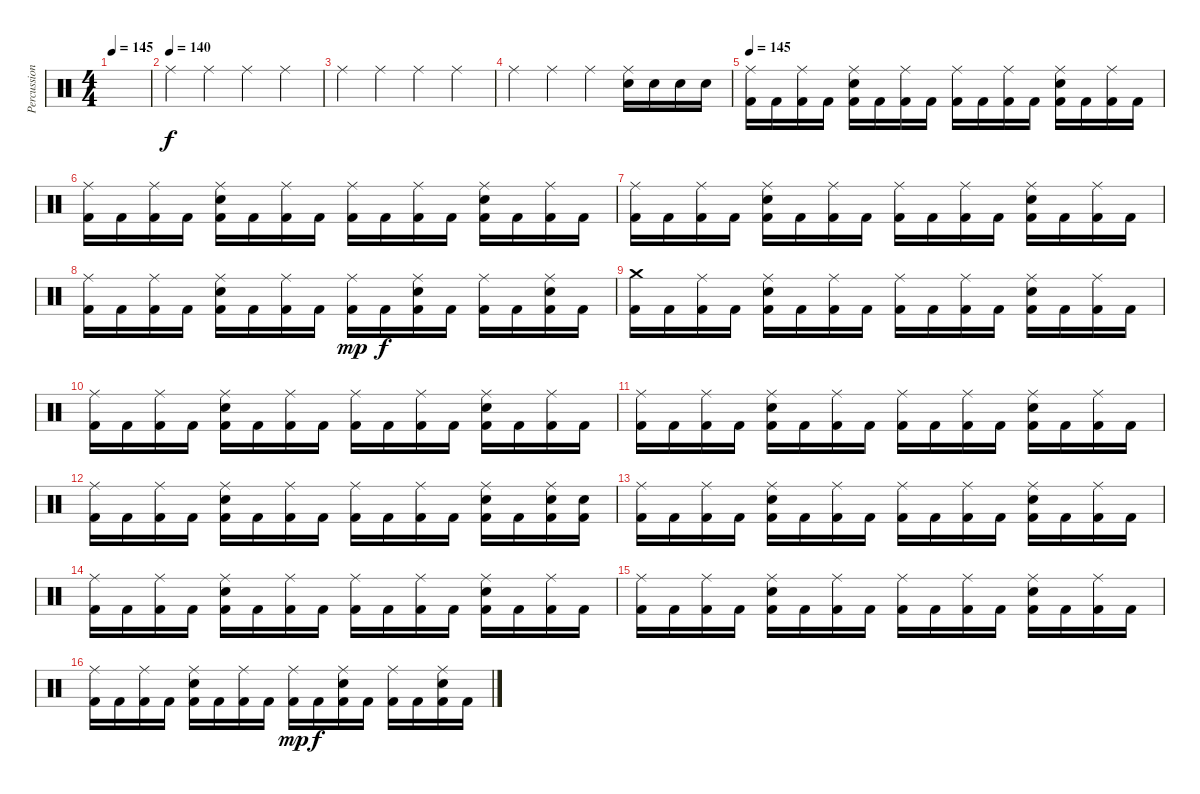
\track ("Percussions" "Percussion") {instrument percussion}
\staff {score}
\articulation defaults
\ts (4 4)
\tempo 145
\clef neutral
\ks c
|
\tempo (140)
"Ride (middle)".4 "Ride (middle)".4 "Ride (middle)".4 "Ride (middle)".4 |
"Ride (middle)".4 "Ride (middle)".4 "Ride (middle)".4 "Ride (middle)".4 |
"Ride (middle)".4 "Ride (middle)".4 "Ride (middle)".4 ("Ride (middle)" "Snare (hit) 2").16 "Snare (hit) 2".16 "Snare (hit) 2".16 "Snare (hit) 2".16 |
\tempo 145
("Ride (middle)" "Kick (hit) 2").16 "Kick (hit) 2".16 ("Ride (middle)" "Kick (hit) 2").16 "Kick (hit) 2".16 ("Ride (middle)" "Snare (hit) 2" "Kick (hit) 2").16 "Kick (hit) 2".16 ("Ride (middle)" "Kick (hit) 2").16 "Kick (hit) 2".16 ("Ride (middle)" "Kick (hit) 2").16 "Kick (hit) 2".16 ("Ride (middle)" "Kick (hit) 2").16 "Kick (hit) 2".16 ("Ride (middle)" "Snare (hit) 2" "Kick (hit) 2").16 "Kick (hit) 2".16 ("Ride (middle)" "Kick (hit) 2").16 "Kick (hit) 2".16 |
("Ride (middle)" "Kick (hit) 2").16 "Kick (hit) 2".16 ("Ride (middle)" "Kick (hit) 2").16 "Kick (hit) 2".16 ("Ride (middle)" "Snare (hit) 2" "Kick (hit) 2").16 "Kick (hit) 2".16 ("Ride (middle)" "Kick (hit) 2").16 "Kick (hit) 2".16 ("Ride (middle)" "Kick (hit) 2").16 "Kick (hit) 2".16 ("Ride (middle)" "Kick (hit) 2").16 "Kick (hit) 2".16 ("Ride (middle)" "Snare (hit) 2" "Kick (hit) 2").16 "Kick (hit) 2".16 ("Ride (middle)" "Kick (hit) 2").16 "Kick (hit) 2".16 |
("Ride (middle)" "Kick (hit) 2").16 "Kick (hit) 2".16 ("Ride (middle)" "Kick (hit) 2").16 "Kick (hit) 2".16 ("Ride (middle)" "Snare (hit) 2" "Kick (hit) 2").16 "Kick (hit) 2".16 ("Ride (middle)" "Kick (hit) 2").16 "Kick (hit) 2".16 ("Ride (middle)" "Kick (hit) 2").16 "Kick (hit) 2".16 ("Ride (middle)" "Kick (hit) 2").16 "Kick (hit) 2".16 ("Ride (middle)" "Snare (hit) 2" "Kick (hit) 2").16 "Kick (hit) 2".16 ("Ride (middle)" "Kick (hit) 2").16 "Kick (hit) 2".16 |
("Ride (middle)" "Kick (hit) 2").16 "Kick (hit) 2".16 ("Ride (middle)" "Kick (hit) 2").16 "Kick (hit) 2".16 ("Ride (middle)" "Snare (hit) 2" "Kick (hit) 2").16 "Kick (hit) 2".16 ("Ride (middle)" "Kick (hit) 2").16 "Kick (hit) 2".16 ("Ride (middle)" "Kick (hit) 2").16{dy mp} "Kick (hit) 2".16{dy f} ("Ride (middle)" "Snare (hit) 2" "Kick (hit) 2").16 "Kick (hit) 2".16 ("Ride (middle)" "Kick (hit) 2").16 "Kick (hit) 2".16 ("Ride (middle)" "Snare (hit) 2" "Kick (hit) 2").16 "Kick (hit) 2".16 |
("Crash medium (hit)" "Kick (hit) 2").16 "Kick (hit) 2".16 ("Ride (middle)" "Kick (hit) 2").16 "Kick (hit) 2".16 ("Ride (middle)" "Snare (hit) 2" "Kick (hit) 2").16 "Kick (hit) 2".16 ("Ride (middle)" "Kick (hit) 2").16 "Kick (hit) 2".16 ("Ride (middle)" "Kick (hit) 2").16 "Kick (hit) 2".16 ("Ride (middle)" "Kick (hit) 2").16 "Kick (hit) 2".16 ("Ride (middle)" "Snare (hit) 2" "Kick (hit) 2").16 "Kick (hit) 2".16 ("Ride (middle)" "Kick (hit) 2").16 "Kick (hit) 2".16 |
("Ride (middle)" "Kick (hit) 2").16 "Kick (hit) 2".16 ("Ride (middle)" "Kick (hit) 2").16 "Kick (hit) 2".16 ("Ride (middle)" "Snare (hit) 2" "Kick (hit) 2").16 "Kick (hit) 2".16 ("Ride (middle)" "Kick (hit) 2").16 "Kick (hit) 2".16 ("Ride (middle)" "Kick (hit) 2").16 "Kick (hit) 2".16 ("Ride (middle)" "Kick (hit) 2").16 "Kick (hit) 2".16 ("Ride (middle)" "Snare (hit) 2" "Kick (hit) 2").16 "Kick (hit) 2".16 ("Ride (middle)" "Kick (hit) 2").16 "Kick (hit) 2".16 |
("Ride (middle)" "Kick (hit) 2").16 "Kick (hit) 2".16 ("Ride (middle)" "Kick (hit) 2").16 "Kick (hit) 2".16 ("Ride (middle)" "Snare (hit) 2" "Kick (hit) 2").16 "Kick (hit) 2".16 ("Ride (middle)" "Kick (hit) 2").16 "Kick (hit) 2".16 ("Ride (middle)" "Kick (hit) 2").16 "Kick (hit) 2".16 ("Ride (middle)" "Kick (hit) 2").16 "Kick (hit) 2".16 ("Ride (middle)" "Snare (hit) 2" "Kick (hit) 2").16 "Kick (hit) 2".16 ("Ride (middle)" "Kick (hit) 2").16 "Kick (hit) 2".16 |
("Ride (middle)" "Kick (hit) 2").16 "Kick (hit) 2".16 ("Ride (middle)" "Kick (hit) 2").16 "Kick (hit) 2".16 ("Ride (middle)" "Snare (hit) 2" "Kick (hit) 2").16 "Kick (hit) 2".16 ("Ride (middle)" "Kick (hit) 2").16 "Kick (hit) 2".16 ("Ride (middle)" "Kick (hit) 2").16 "Kick (hit) 2".16 ("Ride (middle)" "Kick (hit) 2").16 "Kick (hit) 2".16 ("Ride (middle)" "Snare (hit) 2" "Kick (hit) 2").16 "Kick (hit) 2".16 ("Ride (middle)" "Snare (hit) 2" "Kick (hit) 2").16 ("Snare (hit) 2" "Kick (hit) 2").16 |
("Ride (middle)" "Kick (hit) 2").16 "Kick (hit) 2".16 ("Ride (middle)" "Kick (hit) 2").16 "Kick (hit) 2".16 ("Ride (middle)" "Snare (hit) 2" "Kick (hit) 2").16 "Kick (hit) 2".16 ("Ride (middle)" "Kick (hit) 2").16 "Kick (hit) 2".16 ("Ride (middle)" "Kick (hit) 2").16 "Kick (hit) 2".16 ("Ride (middle)" "Kick (hit) 2").16 "Kick (hit) 2".16 ("Ride (middle)" "Snare (hit) 2" "Kick (hit) 2").16 "Kick (hit) 2".16 ("Ride (middle)" "Kick (hit) 2").16 "Kick (hit) 2".16 |
("Ride (middle)" "Kick (hit) 2").16 "Kick (hit) 2".16 ("Ride (middle)" "Kick (hit) 2").16 "Kick (hit) 2".16 ("Ride (middle)" "Snare (hit) 2" "Kick (hit) 2").16 "Kick (hit) 2".16 ("Ride (middle)" "Kick (hit) 2").16 "Kick (hit) 2".16 ("Ride (middle)" "Kick (hit) 2").16 "Kick (hit) 2".16 ("Ride (middle)" "Kick (hit) 2").16 "Kick (hit) 2".16 ("Ride (middle)" "Snare (hit) 2" "Kick (hit) 2").16 "Kick (hit) 2".16 ("Ride (middle)" "Kick (hit) 2").16 "Kick (hit) 2".16 |
("Ride (middle)" "Kick (hit) 2").16 "Kick (hit) 2".16 ("Ride (middle)" "Kick (hit) 2").16 "Kick (hit) 2".16 ("Ride (middle)" "Snare (hit) 2" "Kick (hit) 2").16 "Kick (hit) 2".16 ("Ride (middle)" "Kick (hit) 2").16 "Kick (hit) 2".16 ("Ride (middle)" "Kick (hit) 2").16 "Kick (hit) 2".16 ("Ride (middle)" "Kick (hit) 2").16 "Kick (hit) 2".16 ("Ride (middle)" "Snare (hit) 2" "Kick (hit) 2").16 "Kick (hit) 2".16 ("Ride (middle)" "Kick (hit) 2").16 "Kick (hit) 2".16 |
("Ride (middle)" "Kick (hit) 2").16 "Kick (hit) 2".16 ("Ride (middle)" "Kick (hit) 2").16 "Kick (hit) 2".16 ("Ride (middle)" "Snare (hit) 2" "Kick (hit) 2").16 "Kick (hit) 2".16 ("Ride (middle)" "Kick (hit) 2").16 "Kick (hit) 2".16 ("Ride (middle)" "Kick (hit) 2").16{dy mp} "Kick (hit) 2".16{dy f} ("Ride (middle)" "Snare (hit) 2" "Kick (hit) 2").16 "Kick (hit) 2".16 ("Ride (middle)" "Kick (hit) 2").16 "Kick (hit) 2".16 ("Ride (middle)" "Snare (hit) 2" "Kick (hit) 2").16 "Kick (hit) 2".16
